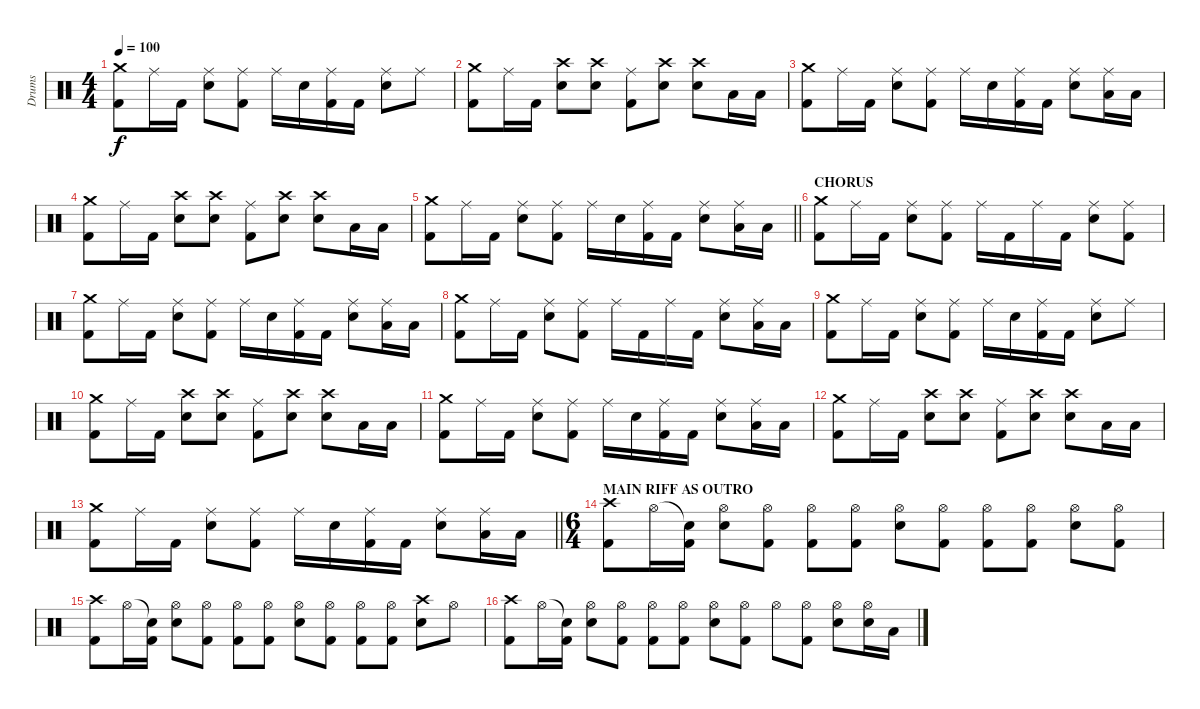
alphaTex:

\track ("Drums" "Drums") {instrument percussion}
\staff {score}
\articulation defaults
\ts (4 4)
\tempo 100
\clef neutral
\ks c
("Crash medium (hit)" "Kick (hit) 2").8{dy f} "Ride (middle)".16 "Kick (hit) 2".16 ("Ride (middle)" "Snare (hit) 2").8 ("Ride (middle)" "Kick (hit) 2").8 "Ride (middle)".16 "Snare (hit) 2".16 ("Ride (middle)" "Kick (hit) 2").16 "Kick (hit) 2".16 ("Ride (middle)" "Snare (hit) 2").8 "Ride (middle)".8 |
("Crash medium (hit)" "Kick (hit) 2").8 "Ride (middle)".16 "Kick (hit) 2".16 ("Crash high (hit)" "Snare (hit) 2").8 ("Crash high (hit)" "Snare (hit) 2").8 ("Ride (middle)" "Kick (hit) 2").8 ("Crash high (hit)" "Snare (hit) 2").8 ("Crash high (hit)" "Snare (hit) 2").8 "Low Tom (hit)".16 "Low Tom (hit)".16 |
("Crash medium (hit)" "Kick (hit) 2").8 "Ride (middle)".16 "Kick (hit) 2".16 ("Ride (middle)" "Snare (hit) 2").8 ("Ride (middle)" "Kick (hit) 2").8 "Ride (middle)".16 "Snare (hit) 2".16 ("Ride (middle)" "Kick (hit) 2").16 "Kick (hit) 2".16 ("Ride (middle)" "Snare (hit) 2").8 ("Ride (middle)" "Low Tom (hit)").16 "Low Tom (hit)".16 |
("Crash medium (hit)" "Kick (hit) 2").8 "Ride (middle)".16 "Kick (hit) 2".16 ("Crash high (hit)" "Snare (hit) 2").8 ("Crash high (hit)" "Snare (hit) 2").8 ("Ride (middle)" "Kick (hit) 2").8 ("Crash high (hit)" "Snare (hit) 2").8 ("Crash high (hit)" "Snare (hit) 2").8 "Low Tom (hit)".16 "Low Tom (hit)".16 |
\barLineRight lightlight
("Crash medium (hit)" "Kick (hit) 2").8 "Ride (middle)".16 "Kick (hit) 2".16 ("Ride (middle)" "Snare (hit) 2").8 ("Ride (middle)" "Kick (hit) 2").8 "Ride (middle)".16 "Snare (hit) 2".16 ("Ride (middle)" "Kick (hit) 2").16 "Kick (hit) 2".16 ("Ride (middle)" "Snare (hit) 2").8 ("Ride (middle)" "Low Tom (hit)").16 "Low Tom (hit)".16 |
\section ("" "CHORUS")
("Crash medium (hit)" "Kick (hit) 2").8 "Ride (middle)".16 "Kick (hit) 2".16 ("Ride (middle)" "Snare (hit) 2").8 ("Ride (middle)" "Kick (hit) 2").8 "Ride (middle)".16 "Kick (hit) 2".16 "Ride (middle)".16 "Kick (hit) 2".16 ("Ride (middle)" "Snare (hit) 2").8 ("Ride (middle)" "Kick (hit) 2").8 |
("Crash medium (hit)" "Kick (hit) 2").8 "Ride (middle)".16 "Kick (hit) 2".16 ("Ride (middle)" "Snare (hit) 2").8 ("Ride (middle)" "Kick (hit) 2").8 "Ride (middle)".16 "Snare (hit) 2".16 ("Ride (middle)" "Kick (hit) 2").16 "Kick (hit) 2".16 ("Ride (middle)" "Snare (hit) 2").8 ("Ride (middle)" "Low Tom (hit)").16 "Low Tom (hit)".16 |
("Crash medium (hit)" "Kick (hit) 2").8 "Ride (middle)".16 "Kick (hit) 2".16 ("Ride (middle)" "Snare (hit) 2").8 ("Ride (middle)" "Kick (hit) 2").8 "Ride (middle)".16 "Kick (hit) 2".16 "Ride (middle)".16 "Kick (hit) 2".16 ("Ride (middle)" "Snare (hit) 2").8 ("Ride (middle)" "Low Tom (hit)").16 "Low Tom (hit)".16 |
("Crash medium (hit)" "Kick (hit) 2").8 "Ride (middle)".16 "Kick (hit) 2".16 ("Ride (middle)" "Snare (hit) 2").8 ("Ride (middle)" "Kick (hit) 2").8 "Ride (middle)".16 "Snare (hit) 2".16 ("Ride (middle)" "Kick (hit) 2").16 "Kick (hit) 2".16 ("Ride (middle)" "Snare (hit) 2").8 "Ride (middle)".8 |
("Crash medium (hit)" "Kick (hit) 2").8 "Ride (middle)".16 "Kick (hit) 2".16 ("Crash high (hit)" "Snare (hit) 2").8 ("Crash high (hit)" "Snare (hit) 2").8 ("Ride (middle)" "Kick (hit) 2").8 ("Crash high (hit)" "Snare (hit) 2").8 ("Crash high (hit)" "Snare (hit) 2").8 "Low Tom (hit)".16 "Low Tom (hit)".16 |
("Crash medium (hit)" "Kick (hit) 2").8 "Ride (middle)".16 "Kick (hit) 2".16 ("Ride (middle)" "Snare (hit) 2").8 ("Ride (middle)" "Kick (hit) 2").8 "Ride (middle)".16 "Snare (hit) 2".16 ("Ride (middle)" "Kick (hit) 2").16 "Kick (hit) 2".16 ("Ride (middle)" "Snare (hit) 2").8 ("Ride (middle)" "Low Tom (hit)").16 "Low Tom (hit)".16 |
("Crash medium (hit)" "Kick (hit) 2").8 "Ride (middle)".16 "Kick (hit) 2".16 ("Crash high (hit)" "Snare (hit) 2").8 ("Crash high (hit)" "Snare (hit) 2").8 ("Ride (middle)" "Kick (hit) 2").8 ("Crash high (hit)" "Snare (hit) 2").8 ("Crash high (hit)" "Snare (hit) 2").8 "Low Tom (hit)".16 "Low Tom (hit)".16 |
\barLineRight lightlight
("Crash medium (hit)" "Kick (hit) 2").8 "Ride (middle)".16 "Kick (hit) 2".16 ("Ride (middle)" "Snare (hit) 2").8 ("Ride (middle)" "Kick (hit) 2").8 "Ride (middle)".16 "Snare (hit) 2".16 ("Ride (middle)" "Kick (hit) 2").16 "Kick (hit) 2".16 ("Ride (middle)" "Snare (hit) 2").8 ("Ride (middle)" "Low Tom (hit)").16 "Low Tom (hit)".16 |
\ts (6 4)
\section ("" "MAIN RIFF AS OUTRO")
("Crash high (hit)" "Kick (hit) 2").8 "Hi-Hat (open)".16 ("Snare (hit)"{t} "Kick (hit) 2").16 ("Hi-Hat (open)" "Snare (hit) 2").8 ("Hi-Hat (open)" "Kick (hit) 2").8 ("Hi-Hat (open)" "Kick (hit) 2").8 ("Hi-Hat (open)" "Kick (hit) 2").8 ("Hi-Hat (open)" "Snare (hit) 2").8 ("Hi-Hat (open)" "Kick (hit) 2").8 ("Hi-Hat (open)" "Kick (hit) 2").8 ("Hi-Hat (open)" "Kick (hit) 2").8 ("Hi-Hat (open)" "Snare (hit) 2").8 ("Hi-Hat (open)" "Kick (hit) 2").8 |
("Crash high (hit)" "Kick (hit) 2").8 "Hi-Hat (open)".16 ("Snare (hit)"{t} "Kick (hit) 2").16 ("Hi-Hat (open)" "Snare (hit) 2").8 ("Hi-Hat (open)" "Kick (hit) 2").8 ("Hi-Hat (open)" "Kick (hit) 2").8 ("Hi-Hat (open)" "Kick (hit) 2").8 ("Hi-Hat (open)" "Snare (hit) 2").8 ("Hi-Hat (open)" "Kick (hit) 2").8 ("Hi-Hat (open)" "Kick (hit) 2").8 ("Hi-Hat (open)" "Kick (hit) 2").8 ("Crash high (hit)" "Snare (hit) 2").8 "Hi-Hat (open)".8 |
("Crash high (hit)" "Kick (hit) 2").8 "Hi-Hat (open)".16 ("Snare (hit)"{t} "Kick (hit) 2").16 ("Hi-Hat (open)" "Snare (hit) 2").8 ("Hi-Hat (open)" "Kick (hit) 2").8 ("Hi-Hat (open)" "Kick (hit) 2").8 ("Hi-Hat (open)" "Kick (hit) 2").8 ("Hi-Hat (open)" "Snare (hit) 2").8 ("Hi-Hat (open)" "Kick (hit) 2").8 "Hi-Hat (open)".8 ("Hi-Hat (open)" "Kick (hit) 2").8 ("Hi-Hat (open)" "Snare (hit) 2").8 ("Hi-Hat (open)" "Snare (hit) 2").16 "Low Tom (hit)".16
